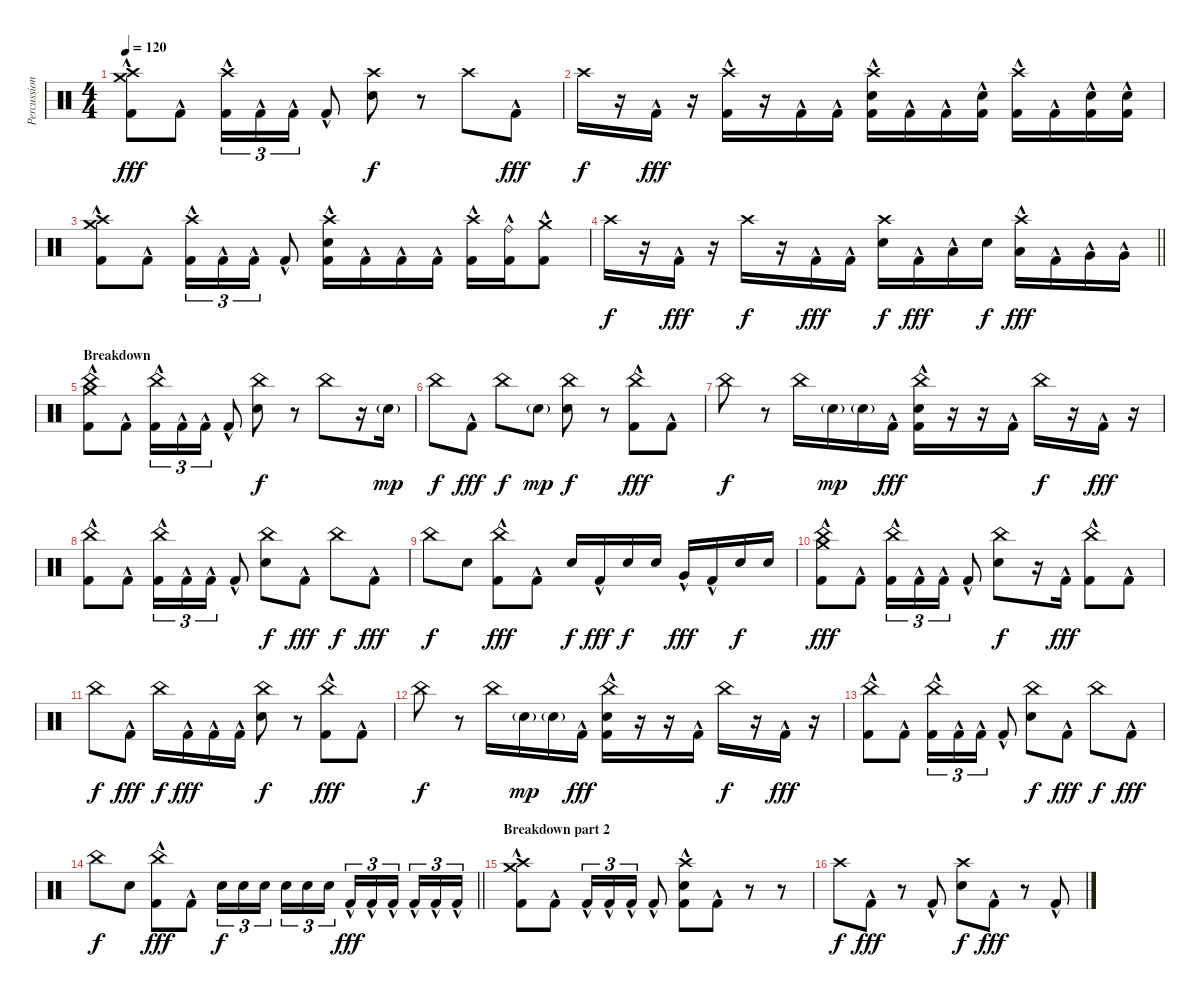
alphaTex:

\track ("Percussion" "Percussion") {instrument percussion}
\staff {score}
\articulation defaults
\ts (4 4)
\tempo 120
\clef neutral
\ks c
("Crash high (hit)" "Crash medium (hit)" "Kick (hit) 2"{hac}).8{dy fff} "Kick (hit) 2"{hac}.8 ("Crash high (hit)" "Kick (hit) 2"{hac}).16{tu (3 2)} "Kick (hit) 2"{hac}.16{tu (3 2)} "Kick (hit) 2"{hac}.16{tu (3 2)} "Kick (hit) 2"{hac}.8 ("Crash high (hit)" "Snare (hit) 2").8{dy f} r.8 "Crash high (hit)".8 "Kick (hit) 2"{hac}.8{dy fff} |
"Crash high (hit)".16{dy f} r.16 "Kick (hit) 2"{hac}.16{dy fff} r.16 ("Crash high (hit)" "Kick (hit) 2"{hac}).16 r.16 "Kick (hit) 2"{hac}.16 "Kick (hit) 2"{hac}.16 ("Crash high (hit)" "Snare (hit) 2" "Kick (hit) 2"{hac}).16 "Kick (hit) 2"{hac}.16 "Kick (hit) 2"{hac}.16 ("Snare (hit) 2" "Kick (hit) 2"{hac}).16 ("Crash high (hit)" "Kick (hit) 2"{hac}).16 "Kick (hit) 2"{hac}.16 ("Snare (hit) 2" "Kick (hit) 2"{hac}).16 ("Snare (hit) 2" "Kick (hit) 2"{hac}).16 |
("Crash high (hit)" "Crash medium (hit)" "Kick (hit) 2"{hac}).8 "Kick (hit) 2"{hac}.8 ("Crash high (hit)" "Kick (hit) 2"{hac}).16{tu (3 2)} "Kick (hit) 2"{hac}.16{tu (3 2)} "Kick (hit) 2"{hac}.16{tu (3 2)} "Kick (hit) 2"{hac}.8 ("Crash high (hit)" "Snare (hit) 2" "Kick (hit) 2"{hac}).16 "Kick (hit) 2"{hac}.16 "Kick (hit) 2"{hac}.16 "Kick (hit) 2"{hac}.16 ("Crash high (hit)" "Kick (hit) 2"{hac}).16 ("Ride (bell)" "Kick (hit) 2"{hac}).16 ("Crash medium (hit)" "Kick (hit) 2"{hac}).8 |
\barLineRight lightlight "Crash high (hit)".16{dy f}
r.16 "Kick (hit) 2"{hac}.16{dy fff} r.16 "Crash high (hit)".16{dy f} r.16 "Kick (hit) 2"{hac}.16{dy fff} "Kick (hit) 2"{hac}.16 ("Crash high (hit)" "Snare (hit) 2").16{dy f} "Kick (hit) 2"{hac}.16{dy fff} "Low Tom (hit)"{hac}.16 "Snare (hit) 2".16{dy f} ("Crash high (hit)" "Low Tom (hit)"{hac}).16{dy fff} "Kick (hit) 2"{hac}.16 "Very Low Tom (hit)"{hac}.16 "Very Low Tom (hit)"{hac}.16 |
\section ("" "Breakdown")
("China (hit)" "Crash medium (hit)" "Kick (hit) 2"{hac}).8 "Kick (hit) 2"{hac}.8 ("China (hit)" "Kick (hit) 2"{hac}).16{tu (3 2)} "Kick (hit) 2"{hac}.16{tu (3 2)} "Kick (hit) 2"{hac}.16{tu (3 2)} "Kick (hit) 2"{hac}.8 ("China (hit)" "Snare (hit) 2").8{dy f} r.8 "China (hit)".8 r.16 "Snare (hit) 2"{g}.16{dy mp} |
"China (hit)".8{dy f} "Kick (hit) 2"{hac}.8{dy fff} "China (hit)".8{dy f} "Snare (hit) 2"{g}.8{dy mp} ("China (hit)" "Snare (hit) 2").8{dy f} r.8 ("China (hit)" "Kick (hit) 2"{hac}).8{dy fff} "Kick (hit) 2"{hac}.8 |
"China (hit)".8{dy f} r.8 "China (hit)".16 "Snare (hit) 2"{g}.16{dy mp} "Snare (hit) 2"{g}.16 "Kick (hit) 2"{hac}.16{dy fff} ("China (hit)" "Snare (hit) 2" "Kick (hit) 2"{hac}).16 r.16 r.16 "Kick (hit) 2"{hac}.16 "China (hit)".16{dy f} r.16 "Kick (hit) 2"{hac}.16{dy fff} r.16 |
("China (hit)" "Kick (hit) 2"{hac}).8 "Kick (hit) 2"{hac}.8 ("China (hit)" "Kick (hit) 2"{hac}).16{tu (3 2)} "Kick (hit) 2"{hac}.16{tu (3 2)} "Kick (hit) 2"{hac}.16{tu (3 2)} "Kick (hit) 2"{hac}.8 ("China (hit)" "Snare (hit) 2").8{dy f} "Kick (hit) 2"{hac}.8{dy fff} "China (hit)".8{dy f} "Kick (hit) 2"{hac}.8{dy fff} |
"China (hit)".8{dy f} "Snare (hit) 2".8 ("China (hit)" "Kick (hit) 2"{hac}).8{dy fff} "Kick (hit) 2"{hac}.8 "Snare (hit) 2".16{dy f} "Kick (hit) 2"{hac}.16{dy fff} "Snare (hit) 2".16{dy f} "Snare (hit) 2".16 "Very Low Tom (hit)"{hac}.16{dy fff} "Kick (hit) 2"{hac}.16 "Snare (hit) 2".16{dy f} "Snare (hit) 2".16 |
("China (hit)" "Crash medium (hit)" "Kick (hit) 2"{hac}).8{dy fff} "Kick (hit) 2"{hac}.8 ("China (hit)" "Kick (hit) 2"{hac}).16{tu (3 2)} "Kick (hit) 2"{hac}.16{tu (3 2)} "Kick (hit) 2"{hac}.16{tu (3 2)} "Kick (hit) 2"{hac}.8 ("China (hit)" "Snare (hit) 2").8{dy f} r.16 "Kick (hit) 2"{hac}.16{dy fff} ("China (hit)" "Kick (hit) 2"{hac}).8 "Kick (hit) 2"{hac}.8 |
"China (hit)".8{dy f} "Kick (hit) 2"{hac}.8{dy fff} "China (hit)".16{dy f} "Kick (hit) 2"{hac}.16{dy fff} "Kick (hit) 2"{hac}.16 "Kick (hit) 2"{hac}.16 ("China (hit)" "Snare (hit) 2").8{dy f} r.8 ("China (hit)" "Kick (hit) 2"{hac}).8{dy fff} "Kick (hit) 2"{hac}.8 |
"China (hit)".8{dy f} r.8 "China (hit)".16 "Snare (hit) 2"{g}.16{dy mp} "Snare (hit) 2"{g}.16 "Kick (hit) 2"{hac}.16{dy fff} ("China (hit)" "Snare (hit) 2" "Kick (hit) 2"{hac}).16 r.16 r.16 "Kick (hit) 2"{hac}.16 "China (hit)".16{dy f} r.16 "Kick (hit) 2"{hac}.16{dy fff} r.16 |
("China (hit)" "Kick (hit) 2"{hac}).8 "Kick (hit) 2"{hac}.8 ("China (hit)" "Kick (hit) 2"{hac}).16{tu (3 2)} "Kick (hit) 2"{hac}.16{tu (3 2)} "Kick (hit) 2"{hac}.16{tu (3 2)} "Kick (hit) 2"{hac}.8 ("China (hit)" "Snare (hit) 2").8{dy f} "Kick (hit) 2"{hac}.8{dy fff} "China (hit)".8{dy f} "Kick (hit) 2"{hac}.8{dy fff} |
\barLineRight lightlight "China (hit)".8{dy f} "Snare (hit) 2".8
("China (hit)" "Kick (hit) 2"{hac}).8{dy fff} "Kick (hit) 2"{hac}.8 "Snare (hit) 2".16{tu (3 2) dy f} "Snare (hit) 2".16{tu (3 2)} "Snare (hit) 2".16{tu (3 2) beam splitsecondary} "Snare (hit) 2".16{tu (3 2)} "Snare (hit) 2".16{tu (3 2)} "Snare (hit) 2".16{tu (3 2)} "Kick (hit) 2"{hac}.16{tu (3 2) dy fff} "Kick (hit) 2"{hac}.16{tu (3 2)} "Kick (hit) 2"{hac}.16{tu (3 2) beam splitsecondary} "Kick (hit) 2"{hac}.16{tu (3 2)} "Kick (hit) 2"{hac}.16{tu (3 2)} "Kick (hit) 2"{hac}.16{tu (3 2)} |
\section ("" "Breakdown part 2")
("Crash high (hit)" "Crash medium (hit)" "Kick (hit) 2"{hac}).8 "Kick (hit) 2"{hac}.8 "Kick (hit) 2"{hac}.16{tu (3 2)} "Kick (hit) 2"{hac}.16{tu (3 2)} "Kick (hit) 2"{hac}.16{tu (3 2)} "Kick (hit) 2"{hac}.8 ("Crash high (hit)" "Snare (hit) 2" "Kick (hit) 2"{hac}).8 "Kick (hit) 2"{hac}.8 r.8 r.8 |
"Crash high (hit)".8{dy f} "Kick (hit) 2"{hac}.8{dy fff} r.8 "Kick (hit) 2"{hac}.8 ("Crash high (hit)" "Snare (hit) 2").8{dy f} "Kick (hit) 2"{hac}.8{dy fff} r.8 "Kick (hit) 2"{hac}.8
